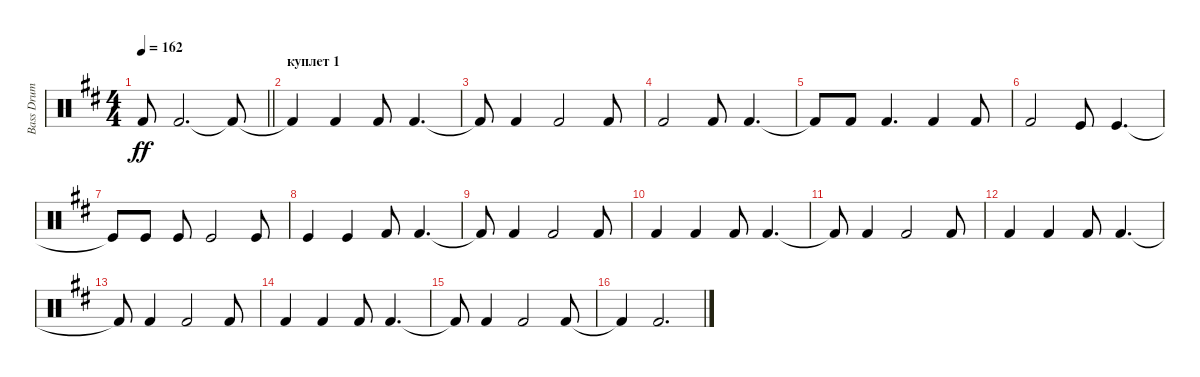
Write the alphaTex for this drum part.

\track ("Bass Drum" "Bass Drum") {instrument percussion}
\staff {score}
\articulation defaults
\ts (4 4)
\tempo 162
\clef neutral
\barLineRight lightlight
\ks bminor "Kick (hit) 2"{t}.8{dy ff} "Kick (hit) 2".2{d} "Kick (hit) 2"{t}.8
|
\section ("" "куплет 1")
"Kick (hit) 2"{t}.4 "Kick (hit) 2".4 "Kick (hit) 2".8 "Kick (hit) 2".4{d} |
"Kick (hit) 2"{t}.8 "Kick (hit) 2".4 "Kick (hit) 2".2 "Kick (hit) 2".8 |
"Kick (hit) 2".2 "Kick (hit) 2".8 "Kick (hit) 2".4{d} |
"Kick (hit) 2"{t}.8 "Kick (hit) 2".8 "Kick (hit) 2".4{d} "Kick (hit) 2".4 "Kick (hit) 2".8 |
"Kick (hit) 2".2 "Kick (hit)".8 "Kick (hit)".4{d} |
"Kick (hit)"{t}.8 "Kick (hit)".8 "Kick (hit)".8 "Kick (hit)".2 "Kick (hit)".8 |
"Kick (hit)".4 "Kick (hit)".4 "Kick (hit) 2".8 "Kick (hit) 2".4{d} |
"Kick (hit) 2"{t}.8 "Kick (hit) 2".4 "Kick (hit) 2".2 "Kick (hit) 2".8 |
"Kick (hit) 2".4 "Kick (hit) 2".4 "Kick (hit) 2".8 "Kick (hit) 2".4{d} |
"Kick (hit) 2"{t}.8 "Kick (hit) 2".4 "Kick (hit) 2".2 "Kick (hit) 2".8 |
"Kick (hit) 2".4 "Kick (hit) 2".4 "Kick (hit) 2".8 "Kick (hit) 2".4{d} |
"Kick (hit) 2"{t}.8 "Kick (hit) 2".4 "Kick (hit) 2".2 "Kick (hit) 2".8 |
"Kick (hit) 2".4 "Kick (hit) 2".4 "Kick (hit) 2".8 "Kick (hit) 2".4{d} |
"Kick (hit) 2"{t}.8 "Kick (hit) 2".4 "Kick (hit) 2".2 "Kick (hit) 2".8 |
"Kick (hit) 2"{t}.4 "Kick (hit) 2".2{d}
